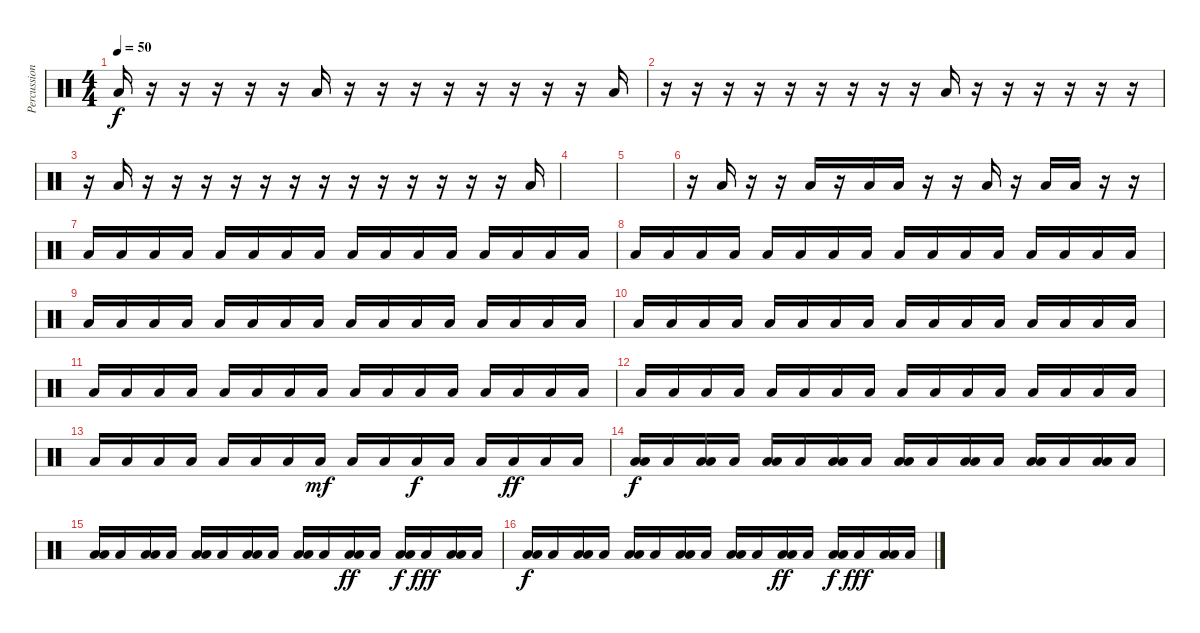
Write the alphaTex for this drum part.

\track ("Percussion" "Percussion") {instrument percussion}
\staff {score}
\articulation defaults
\ts (4 4)
\tempo 50
\clef neutral
\ks c "Low Floor Tom (hit)".16{dy f}
r.16 r.16 r.16 r.16 r.16 "Low Floor Tom (hit)".16 r.16 r.16 r.16 r.16 r.16 r.16 r.16 r.16 "Low Floor Tom (hit)".16 |
r.16 r.16 r.16 r.16 r.16 r.16 r.16 r.16 r.16 "Low Floor Tom (hit)".16 r.16 r.16 r.16 r.16 r.16 r.16 |
r.16 "Low Floor Tom (hit)".16 r.16 r.16 r.16 r.16 r.16 r.16 r.16 r.16 r.16 r.16 r.16 r.16 r.16 "Low Floor Tom (hit)".16 |
|
|
r.16 "Low Floor Tom (hit)".16 r.16 r.16 "Low Floor Tom (hit)".16 r.16 "Low Floor Tom (hit)".16 "Low Floor Tom (hit)".16 r.16 r.16 "Low Floor Tom (hit)".16 r.16 "Low Floor Tom (hit)".16 "Low Floor Tom (hit)".16 r.16 r.16 |
"Low Floor Tom (hit)".16 "Low Floor Tom (hit)".16 "Low Floor Tom (hit)".16 "Low Floor Tom (hit)".16 "Low Floor Tom (hit)".16 "Low Floor Tom (hit)".16 "Low Floor Tom (hit)".16 "Low Floor Tom (hit)".16 "Low Floor Tom (hit)".16 "Low Floor Tom (hit)".16 "Low Floor Tom (hit)".16 "Low Floor Tom (hit)".16 "Low Floor Tom (hit)".16 "Low Floor Tom (hit)".16 "Low Floor Tom (hit)".16 "Low Floor Tom (hit)".16 |
"Low Floor Tom (hit)".16 "Low Floor Tom (hit)".16 "Low Floor Tom (hit)".16 "Low Floor Tom (hit)".16 "Low Floor Tom (hit)".16 "Low Floor Tom (hit)".16 "Low Floor Tom (hit)".16 "Low Floor Tom (hit)".16 "Low Floor Tom (hit)".16 "Low Floor Tom (hit)".16 "Low Floor Tom (hit)".16 "Low Floor Tom (hit)".16 "Low Floor Tom (hit)".16 "Low Floor Tom (hit)".16 "Low Floor Tom (hit)".16 "Low Floor Tom (hit)".16 |
"Low Floor Tom (hit)".16 "Low Floor Tom (hit)".16 "Low Floor Tom (hit)".16 "Low Floor Tom (hit)".16 "Low Floor Tom (hit)".16 "Low Floor Tom (hit)".16 "Low Floor Tom (hit)".16 "Low Floor Tom (hit)".16 "Low Floor Tom (hit)".16 "Low Floor Tom (hit)".16 "Low Floor Tom (hit)".16 "Low Floor Tom (hit)".16 "Low Floor Tom (hit)".16 "Low Floor Tom (hit)".16 "Low Floor Tom (hit)".16 "Low Floor Tom (hit)".16 |
"Low Floor Tom (hit)".16 "Low Floor Tom (hit)".16 "Low Floor Tom (hit)".16 "Low Floor Tom (hit)".16 "Low Floor Tom (hit)".16 "Low Floor Tom (hit)".16 "Low Floor Tom (hit)".16 "Low Floor Tom (hit)".16 "Low Floor Tom (hit)".16 "Low Floor Tom (hit)".16 "Low Floor Tom (hit)".16 "Low Floor Tom (hit)".16 "Low Floor Tom (hit)".16 "Low Floor Tom (hit)".16 "Low Floor Tom (hit)".16 "Low Floor Tom (hit)".16 |
"Low Floor Tom (hit)".16 "Low Floor Tom (hit)".16 "Low Floor Tom (hit)".16 "Low Floor Tom (hit)".16 "Low Floor Tom (hit)".16 "Low Floor Tom (hit)".16 "Low Floor Tom (hit)".16 "Low Floor Tom (hit)".16 "Low Floor Tom (hit)".16 "Low Floor Tom (hit)".16 "Low Floor Tom (hit)".16 "Low Floor Tom (hit)".16 "Low Floor Tom (hit)".16 "Low Floor Tom (hit)".16 "Low Floor Tom (hit)".16 "Low Floor Tom (hit)".16 |
"Low Floor Tom (hit)".16 "Low Floor Tom (hit)".16 "Low Floor Tom (hit)".16 "Low Floor Tom (hit)".16 "Low Floor Tom (hit)".16 "Low Floor Tom (hit)".16 "Low Floor Tom (hit)".16 "Low Floor Tom (hit)".16 "Low Floor Tom (hit)".16 "Low Floor Tom (hit)".16 "Low Floor Tom (hit)".16 "Low Floor Tom (hit)".16 "Low Floor Tom (hit)".16 "Low Floor Tom (hit)".16 "Low Floor Tom (hit)".16 "Low Floor Tom (hit)".16 |
"Low Floor Tom (hit)".16 "Low Floor Tom (hit)".16 "Low Floor Tom (hit)".16 "Low Floor Tom (hit)".16 "Low Floor Tom (hit)".16 "Low Floor Tom (hit)".16 "Low Floor Tom (hit)".16 "Low Floor Tom (hit)".16{dy mf} "Low Floor Tom (hit)".16 "Low Floor Tom (hit)".16 "Low Floor Tom (hit)".16{dy f} "Low Floor Tom (hit)".16 "Low Floor Tom (hit)".16 "Low Floor Tom (hit)".16{dy ff} "Low Floor Tom (hit)".16 "Low Floor Tom (hit)".16 |
("Low Floor Tom (hit)" "Low Tom (hit)").16{dy f} "Low Floor Tom (hit)".16 ("Low Floor Tom (hit)" "Low Tom (hit)").16 "Low Floor Tom (hit)".16 ("Low Floor Tom (hit)" "Low Tom (hit)").16 "Low Floor Tom (hit)".16 ("Low Floor Tom (hit)" "Low Tom (hit)").16 "Low Floor Tom (hit)".16 ("Low Floor Tom (hit)" "Low Tom (hit)").16 "Low Floor Tom (hit)".16 ("Low Floor Tom (hit)" "Low Tom (hit)").16 "Low Floor Tom (hit)".16 ("Low Floor Tom (hit)" "Low Tom (hit)").16 "Low Floor Tom (hit)".16 ("Low Floor Tom (hit)" "Low Tom (hit)").16 "Low Floor Tom (hit)".16 |
("Low Floor Tom (hit)" "Low Tom (hit)").16 "Low Floor Tom (hit)".16 ("Low Floor Tom (hit)" "Low Tom (hit)").16 "Low Floor Tom (hit)".16 ("Low Floor Tom (hit)" "Low Tom (hit)").16 "Low Floor Tom (hit)".16 ("Low Floor Tom (hit)" "Low Tom (hit)").16 "Low Floor Tom (hit)".16 ("Low Floor Tom (hit)" "Low Tom (hit)").16 "Low Floor Tom (hit)".16 ("Low Floor Tom (hit)" "Low Tom (hit)").16{dy ff} "Low Floor Tom (hit)".16 ("Low Floor Tom (hit)" "Low Tom (hit)").16{dy f} "Low Floor Tom (hit)".16{dy fff} ("Low Floor Tom (hit)" "Low Tom (hit)").16 "Low Floor Tom (hit)".16 |
("Low Floor Tom (hit)" "Low Tom (hit)").16{dy f} "Low Floor Tom (hit)".16 ("Low Floor Tom (hit)" "Low Tom (hit)").16 "Low Floor Tom (hit)".16 ("Low Floor Tom (hit)" "Low Tom (hit)").16 "Low Floor Tom (hit)".16 ("Low Floor Tom (hit)" "Low Tom (hit)").16 "Low Floor Tom (hit)".16 ("Low Floor Tom (hit)" "Low Tom (hit)").16 "Low Floor Tom (hit)".16 ("Low Floor Tom (hit)" "Low Tom (hit)").16{dy ff} "Low Floor Tom (hit)".16 ("Low Floor Tom (hit)" "Low Tom (hit)").16{dy f} "Low Floor Tom (hit)".16{dy fff} ("Low Floor Tom (hit)" "Low Tom (hit)").16 "Low Floor Tom (hit)".16
